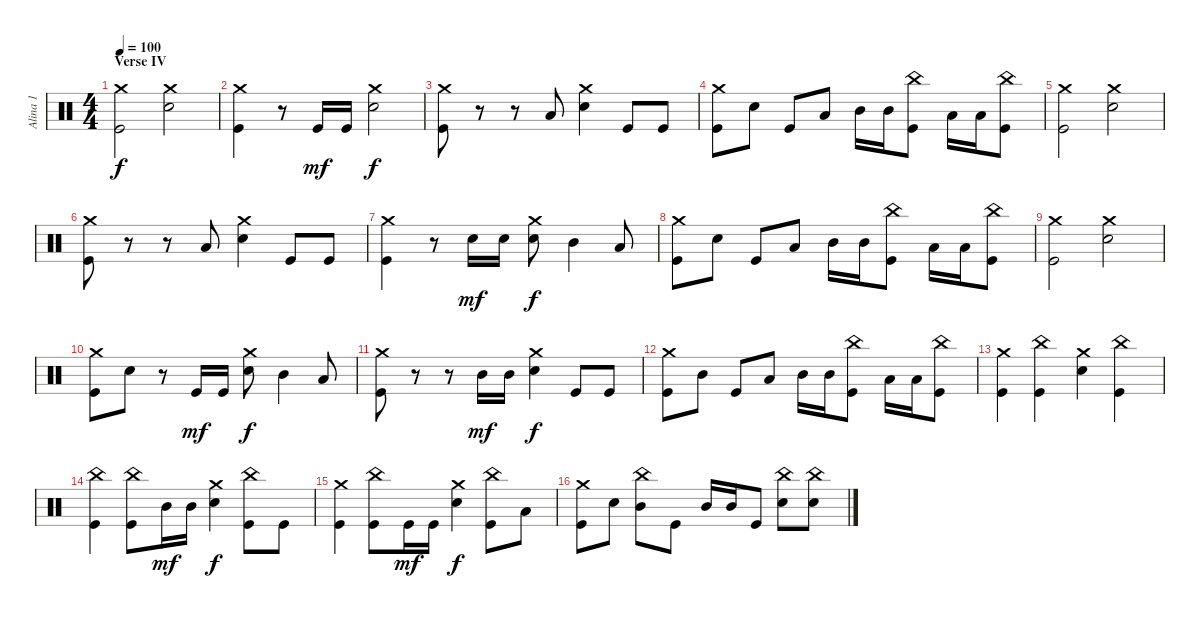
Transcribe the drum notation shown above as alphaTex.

\track ("Alina 1" "Alina 1") {mute instrument percussion}
\staff {score}
\articulation defaults
\ts (4 4)
\section ("" "Verse IV")
\tempo 100
\clef neutral
\ks c
("Kick (hit)" "Crash medium (hit)").2{dy f} ("Snare (hit) 2" "Crash medium (hit)").2 |
("Kick (hit)" "Crash medium (hit)").4 r.8 "Kick (hit)".16{dy mf} "Kick (hit)".16 ("Snare (hit) 2" "Crash medium (hit)").2{dy f} |
("Kick (hit)" "Crash medium (hit)").8 r.8 r.8 "Low Tom (hit)".8 ("Snare (hit) 2" "Crash medium (hit)").4 "Kick (hit)".8 "Kick (hit)".8 |
("Kick (hit)" "Crash medium (hit)").8 "Snare (hit) 2".8 "Kick (hit)".8 "Low Floor Tom (hit)".8 "Mid Tom (hit)".16 "Mid Tom (hit)".16 ("Kick (hit)" "China (hit)").8 "Low Tom (hit)".16 "Low Tom (hit)".16 ("Kick (hit)" "China (hit)").8 |
("Kick (hit)" "Crash medium (hit)").2 ("Snare (hit) 2" "Crash medium (hit)").2 |
("Kick (hit)" "Crash medium (hit)").8 r.8 r.8 "Low Tom (hit)".8 ("Snare (hit) 2" "Crash medium (hit)").4 "Kick (hit)".8 "Kick (hit)".8 |
("Kick (hit)" "Crash medium (hit)").4 r.8 "Snare (hit) 2".16{dy mf} "Snare (hit) 2".16 ("Snare (hit) 2" "Crash medium (hit)").8{dy f} "Mid Tom (hit)".4 "Low Tom (hit)".8 |
("Kick (hit)" "Crash medium (hit)").8 "Snare (hit) 2".8 "Kick (hit)".8 "Low Floor Tom (hit)".8 "Mid Tom (hit)".16 "Mid Tom (hit)".16 ("Kick (hit)" "China (hit)").8 "Low Tom (hit)".16 "Low Tom (hit)".16 ("Kick (hit)" "China (hit)").8 |
("Kick (hit)" "Crash medium (hit)").2 ("Snare (hit) 2" "Crash medium (hit)").2 |
("Kick (hit)" "Crash medium (hit)").8 "Snare (hit) 2".8 r.8 "Kick (hit)".16{dy mf} "Kick (hit)".16 ("Snare (hit) 2" "Crash medium (hit)").8{dy f} "Mid Tom (hit)".4 "Low Tom (hit)".8 |
("Kick (hit)" "Crash medium (hit)").8 r.8 r.8 "Mid Tom (hit)".16{dy mf} "Mid Tom (hit)".16 ("Snare (hit) 2" "Crash medium (hit)").4{dy f} "Kick (hit)".8 "Kick (hit)".8 |
("Kick (hit)" "Crash medium (hit)").8 "Mid Tom (hit)".8 "Kick (hit)".8 "Low Floor Tom (hit)".8 "Mid Tom (hit)".16 "Mid Tom (hit)".16 ("Kick (hit)" "China (hit)").8 "Low Tom (hit)".16 "Low Tom (hit)".16 ("Kick (hit)" "China (hit)").8 |
("Kick (hit)" "Crash medium (hit)").4 ("China (hit)" "Kick (hit)").4 ("Snare (hit) 2" "Crash medium (hit)").4 ("China (hit)" "Kick (hit)").4 |
("Kick (hit)" "China (hit)").4 ("China (hit)" "Kick (hit)").8 "Mid Tom (hit)".16{dy mf} "Mid Tom (hit)".16 ("Snare (hit) 2" "Crash medium (hit)").4{dy f} ("China (hit)" "Kick (hit)").8 "Kick (hit)".8 |
("Kick (hit)" "Crash medium (hit)").4 ("China (hit)" "Kick (hit)").8 "Kick (hit)".16{dy mf} "Kick (hit)".16 ("Snare (hit) 2" "Crash medium (hit)").4{dy f} ("China (hit)" "Kick (hit)").8 "Low Tom (hit)".8 |
("Kick (hit)" "Crash medium (hit)").8 "Snare (hit) 2".8 ("Mid Tom (hit)" "China (hit)").8 "Kick (hit)".8 "Mid Tom (hit)".16 "Mid Tom (hit)".16 "Kick (hit)".8 ("China (hit)" "Snare (hit) 2").8 ("China (hit)" "Snare (hit) 2").8
